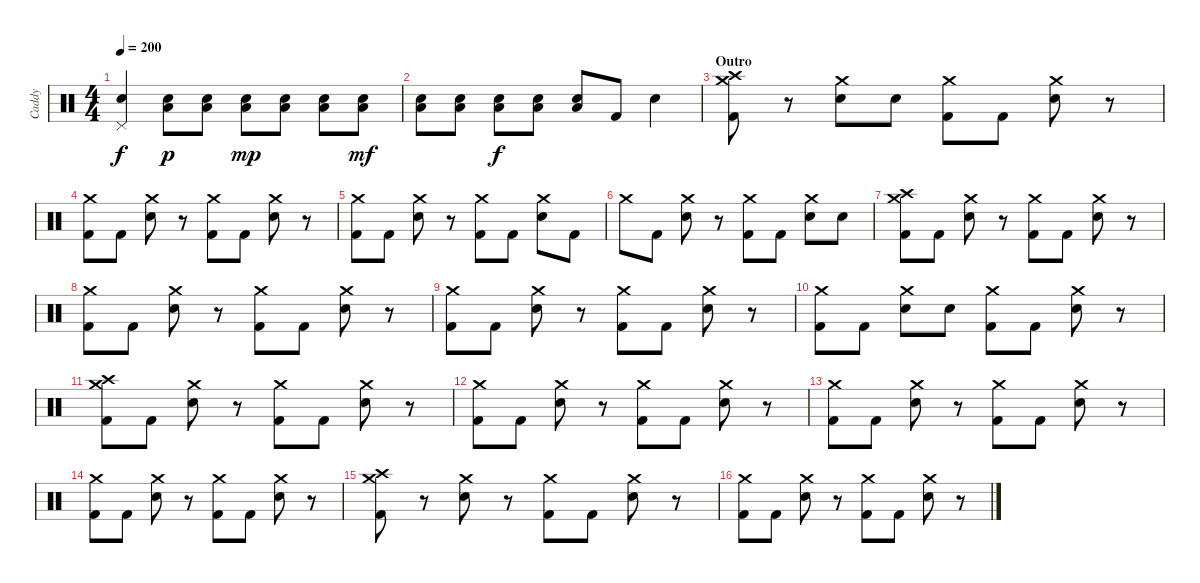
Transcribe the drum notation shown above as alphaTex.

\track ("Caddy" "Caddy") {instrument percussion}
\staff {score}
\articulation defaults
\ts (4 4)
\tempo 200
\clef neutral
\ks c
("Pedal Hi-Hat (hit)" "Electric Snare (hit)").4{dy f} ("Electric Snare (hit)" "Low Floor Tom (hit)").8{dy p} ("Electric Snare (hit)" "Low Floor Tom (hit)").8 ("Electric Snare (hit)" "Low Floor Tom (hit)").8{dy mp} ("Electric Snare (hit)" "Low Floor Tom (hit)").8 ("Electric Snare (hit)" "Low Floor Tom (hit)").8 ("Electric Snare (hit)" "Low Floor Tom (hit)").8{dy mf} |
("Electric Snare (hit)" "Low Floor Tom (hit)").8 ("Electric Snare (hit)" "Low Floor Tom (hit)").8 ("Electric Snare (hit)" "Low Floor Tom (hit)").8{dy f} ("Electric Snare (hit)" "Low Floor Tom (hit)").8 ("Electric Snare (hit)" "Low Floor Tom (hit)").8 "Kick (hit) 2".8 "Electric Snare (hit)".4 |
\section ("" "Outro")
("Crash high (hit)" "Crash medium (hit)" "Kick (hit) 2").8 r.8 ("Crash medium (hit)" "Electric Snare (hit)").8 "Electric Snare (hit)".8 ("Crash medium (hit)" "Kick (hit) 2").8 "Kick (hit) 2".8 ("Crash medium (hit)" "Electric Snare (hit)").8 r.8 |
("Crash medium (hit)" "Kick (hit) 2").8 "Kick (hit) 2".8 ("Crash medium (hit)" "Electric Snare (hit)").8 r.8 ("Crash medium (hit)" "Kick (hit) 2").8 "Kick (hit) 2".8 ("Crash medium (hit)" "Electric Snare (hit)").8 r.8 |
("Crash medium (hit)" "Kick (hit) 2").8 "Kick (hit) 2".8 ("Crash medium (hit)" "Electric Snare (hit)").8 r.8 ("Crash medium (hit)" "Kick (hit) 2").8 "Kick (hit) 2".8 ("Crash medium (hit)" "Electric Snare (hit)").8 "Kick (hit) 2".8 |
"Crash medium (hit)".8 "Kick (hit) 2".8 ("Crash medium (hit)" "Electric Snare (hit)").8 r.8 ("Crash medium (hit)" "Kick (hit) 2").8 "Kick (hit) 2".8 ("Crash medium (hit)" "Electric Snare (hit)").8 "Electric Snare (hit)".8 |
("Crash high (hit)" "Crash medium (hit)" "Kick (hit) 2").8 "Kick (hit) 2".8 ("Crash medium (hit)" "Electric Snare (hit)").8 r.8 ("Crash medium (hit)" "Kick (hit) 2").8 "Kick (hit) 2".8 ("Crash medium (hit)" "Electric Snare (hit)").8 r.8 |
("Crash medium (hit)" "Kick (hit) 2").8 "Kick (hit) 2".8 ("Crash medium (hit)" "Electric Snare (hit)").8 r.8 ("Crash medium (hit)" "Kick (hit) 2").8 "Kick (hit) 2".8 ("Crash medium (hit)" "Electric Snare (hit)").8 r.8 |
("Crash medium (hit)" "Kick (hit) 2").8 "Kick (hit) 2".8 ("Crash medium (hit)" "Electric Snare (hit)").8 r.8 ("Crash medium (hit)" "Kick (hit) 2").8 "Kick (hit) 2".8 ("Crash medium (hit)" "Electric Snare (hit)").8 r.8 |
("Crash medium (hit)" "Kick (hit) 2").8 "Kick (hit) 2".8 ("Crash medium (hit)" "Electric Snare (hit)").8 "Electric Snare (hit)".8 ("Crash medium (hit)" "Kick (hit) 2").8 "Kick (hit) 2".8 ("Crash medium (hit)" "Electric Snare (hit)").8 r.8 |
("Crash high (hit)" "Crash medium (hit)" "Kick (hit) 2").8 "Kick (hit) 2".8 ("Crash medium (hit)" "Electric Snare (hit)").8 r.8 ("Crash medium (hit)" "Kick (hit) 2").8 "Kick (hit) 2".8 ("Crash medium (hit)" "Electric Snare (hit)").8 r.8 |
("Crash medium (hit)" "Kick (hit) 2").8 "Kick (hit) 2".8 ("Crash medium (hit)" "Electric Snare (hit)").8 r.8 ("Crash medium (hit)" "Kick (hit) 2").8 "Kick (hit) 2".8 ("Crash medium (hit)" "Electric Snare (hit)").8 r.8 |
("Crash medium (hit)" "Kick (hit) 2").8 "Kick (hit) 2".8 ("Crash medium (hit)" "Electric Snare (hit)").8 r.8 ("Crash medium (hit)" "Kick (hit) 2").8 "Kick (hit) 2".8 ("Crash medium (hit)" "Electric Snare (hit)").8 r.8 |
("Crash medium (hit)" "Kick (hit) 2").8 "Kick (hit) 2".8 ("Crash medium (hit)" "Electric Snare (hit)").8 r.8 ("Crash medium (hit)" "Kick (hit) 2").8 "Kick (hit) 2".8 ("Crash medium (hit)" "Electric Snare (hit)").8 r.8 |
("Crash high (hit)" "Crash medium (hit)" "Kick (hit) 2").8 r.8 ("Crash medium (hit)" "Electric Snare (hit)").8 r.8 ("Crash medium (hit)" "Kick (hit) 2").8 "Kick (hit) 2".8 ("Crash medium (hit)" "Electric Snare (hit)").8 r.8 |
("Crash medium (hit)" "Kick (hit) 2").8 "Kick (hit) 2".8 ("Crash medium (hit)" "Electric Snare (hit)").8 r.8 ("Crash medium (hit)" "Kick (hit) 2").8 "Kick (hit) 2".8 ("Crash medium (hit)" "Electric Snare (hit)").8 r.8
